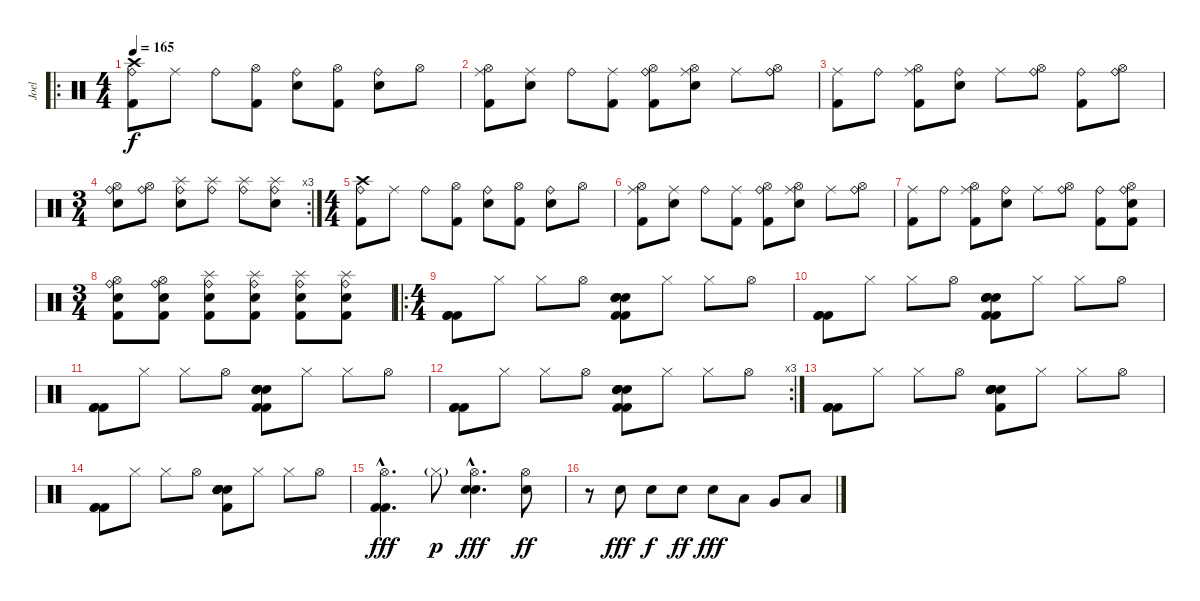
\track ("Joel" "Joel") {instrument percussion}
\staff {score}
\articulation defaults
\ro
\ts (4 4)
\tempo 165
\clef neutral
\ks c
("Crash high (hit)" "Ride (bell)" "Kick (hit) 2").8{dy f} "Ride (middle)".8 "Ride (bell)".8 ("Hi-Hat (open)" "Kick (hit) 2").8 ("Ride (bell)" "Electric Snare (hit)").8 ("Hi-Hat (open)" "Kick (hit) 2").8 ("Ride (bell)" "Electric Snare (hit)").8 "Hi-Hat (open)".8 |
("Ride (middle)" "Hi-Hat (open)" "Kick (hit) 2").8 ("Ride (middle)" "Electric Snare (hit)").8 "Ride (bell)".8 ("Ride (middle)" "Kick (hit) 2").8 ("Ride (bell)" "Hi-Hat (open)" "Kick (hit) 2").8 ("Ride (middle)" "Hi-Hat (open)" "Electric Snare (hit)").8 "Ride (middle)".8 ("Ride (bell)" "Hi-Hat (open)").8 |
("Ride (middle)" "Kick (hit) 2").8 "Ride (bell)".8 ("Ride (middle)" "Hi-Hat (open)" "Kick (hit) 2").8 ("Ride (bell)" "Electric Snare (hit)").8 "Ride (middle)".8 ("Ride (bell)" "Hi-Hat (open)").8 ("Ride (bell)" "Kick (hit) 2").8 ("Ride (bell)" "Hi-Hat (open)").8 |
\rc 3
\ts (3 4)
("Ride (bell)" "Hi-Hat (open)" "Electric Snare (hit)").8 ("Ride (bell)" "Hi-Hat (open)").8 ("Ride (bell)" "Splash (hit)" "Electric Snare (hit)").8 ("Ride (bell)" "Splash (hit)").8 ("Ride (bell)" "Splash (hit)").8 ("Ride (bell)" "Splash (hit)" "Electric Snare (hit)").8 |
\ts (4 4)
("Crash high (hit)" "Ride (bell)" "Kick (hit) 2").8 "Ride (middle)".8 "Ride (bell)".8 ("Hi-Hat (open)" "Kick (hit) 2").8 ("Ride (bell)" "Electric Snare (hit)").8 ("Hi-Hat (open)" "Kick (hit) 2").8 ("Ride (bell)" "Electric Snare (hit)").8 "Hi-Hat (open)".8 |
("Ride (middle)" "Hi-Hat (open)" "Kick (hit) 2").8 ("Ride (middle)" "Electric Snare (hit)").8 "Ride (bell)".8 ("Ride (middle)" "Kick (hit) 2").8 ("Ride (bell)" "Hi-Hat (open)" "Kick (hit) 2").8 ("Ride (middle)" "Hi-Hat (open)" "Electric Snare (hit)").8 "Ride (middle)".8 ("Ride (bell)" "Hi-Hat (open)").8 |
("Ride (middle)" "Kick (hit) 2").8 "Ride (bell)".8 ("Ride (middle)" "Hi-Hat (open)" "Kick (hit) 2").8 ("Ride (bell)" "Electric Snare (hit)").8 "Ride (middle)".8 ("Ride (bell)" "Hi-Hat (open)").8 ("Ride (bell)" "Kick (hit) 2").8 ("Ride (bell)" "Hi-Hat (open)" "Kick (hit) 2" "Electric Snare (hit)").8 |
\ts (3 4)
("Ride (bell)" "Hi-Hat (open)" "Kick (hit) 2" "Electric Snare (hit)").8 ("Ride (bell)" "Hi-Hat (open)" "Kick (hit) 2" "Electric Snare (hit)").8 ("Ride (bell)" "Splash (hit)" "Kick (hit) 2" "Electric Snare (hit)").8 ("Ride (bell)" "Splash (hit)" "Kick (hit) 2" "Electric Snare (hit)").8 ("Ride (bell)" "Splash (hit)" "Kick (hit) 2" "Electric Snare (hit)").8 ("Ride (bell)" "Splash (hit)" "Kick (hit) 2" "Electric Snare (hit)").8 |
\ro
\ts (4 4)
("Kick (hit) 2" "Kick (hit) 2" "Kick (hit) 2").8 "Hi-Hat (closed)".8 "Hi-Hat (closed)".8 "Hi-Hat (open)".8 ("Kick (hit) 2" "Electric Snare (hit)" "Electric Snare (hit)" "Kick (hit) 2" "Electric Snare (hit)" "Electric Snare (hit)").8 "Hi-Hat (closed)".8 "Hi-Hat (closed)".8 "Hi-Hat (open)".8 |
("Kick (hit) 2" "Kick (hit) 2" "Kick (hit) 2").8 "Hi-Hat (closed)".8 "Hi-Hat (closed)".8 "Hi-Hat (open)".8 ("Kick (hit) 2" "Electric Snare (hit)" "Electric Snare (hit)" "Kick (hit) 2" "Electric Snare (hit)" "Electric Snare (hit)").8 "Hi-Hat (closed)".8 "Hi-Hat (closed)".8 "Hi-Hat (open)".8 |
("Kick (hit) 2" "Kick (hit) 2" "Kick (hit) 2").8 "Hi-Hat (closed)".8 "Hi-Hat (closed)".8 "Hi-Hat (open)".8 ("Kick (hit) 2" "Electric Snare (hit)" "Electric Snare (hit)" "Kick (hit) 2" "Electric Snare (hit)" "Electric Snare (hit)").8 "Hi-Hat (closed)".8 "Hi-Hat (closed)".8 "Hi-Hat (open)".8 |
\rc 3
("Kick (hit) 2" "Kick (hit) 2" "Kick (hit) 2").8 "Hi-Hat (closed)".8 "Hi-Hat (closed)".8 "Hi-Hat (open)".8 ("Kick (hit) 2" "Electric Snare (hit)" "Electric Snare (hit)" "Kick (hit) 2" "Electric Snare (hit)" "Electric Snare (hit)").8 "Hi-Hat (closed)".8 "Hi-Hat (closed)".8 "Hi-Hat (open)".8 |
("Kick (hit) 2" "Kick (hit) 2" "Kick (hit) 2").8 "Hi-Hat (closed)".8 "Hi-Hat (closed)".8 "Hi-Hat (open)".8 ("Electric Snare (hit)" "Electric Snare (hit)" "Electric Snare (hit)" "Electric Snare (hit)" "Kick (hit) 2" "Electric Snare (hit)").8 "Hi-Hat (closed)".8 "Hi-Hat (closed)".8 "Hi-Hat (open)".8 |
("Kick (hit) 2" "Kick (hit) 2" "Kick (hit) 2").8 "Hi-Hat (closed)".8 "Hi-Hat (closed)".8 "Hi-Hat (open)".8 ("Electric Snare (hit)" "Electric Snare (hit)" "Electric Snare (hit)" "Electric Snare (hit)" "Kick (hit) 2" "Electric Snare (hit)").8 "Hi-Hat (closed)".8 "Hi-Hat (closed)".8 "Hi-Hat (open)".8 |
("Kick (hit) 2"{hac} "Kick (hit) 2"{hac} "Hi-Hat (open)"{hac}).4{d dy fff} "Hi-Hat (closed)"{g}.8{dy p} ("Electric Snare (hit)"{hac} "Electric Snare (hit)"{hac} "Hi-Hat (open)"{hac}).4{d dy fff} ("Electric Snare (hit)" "Hi-Hat (open)").8{dy ff} |
r.8 "Electric Snare (hit)".8{dy fff} "Electric Snare (hit)".8{dy f} "Electric Snare (hit)".8{dy ff} "Electric Snare (hit)".8{dy fff} "Low Tom (hit)".8 "Very Low Tom (hit)".8 "Low Floor Tom (hit)".8
